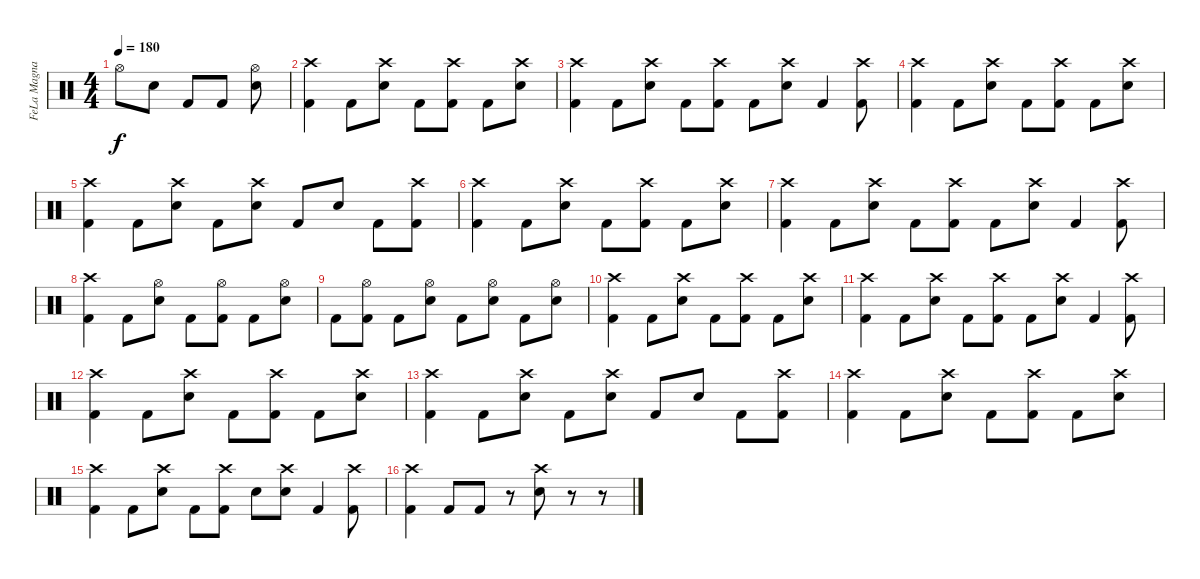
\track ("FeLa Magnani" "FeLa Magna") {instrument percussion}
\staff {score}
\articulation defaults
\ts (4 4)
\tempo 180
\clef neutral
\ks c "Hi-Hat (open)".8{dy f} "Electric Snare (hit)".8 "Kick (hit) 2".8 "Kick (hit) 2".8
("Hi-Hat (open)" "Electric Snare (hit)").8 |
("Crash high (hit)" "Kick (hit) 2").4 "Kick (hit) 2".8 ("Crash high (hit)" "Electric Snare (hit)").8 "Kick (hit) 2".8 ("Crash high (hit)" "Kick (hit) 2").8 "Kick (hit) 2".8 ("Crash high (hit)" "Electric Snare (hit)").8 |
("Crash high (hit)" "Kick (hit) 2").4 "Kick (hit) 2".8 ("Crash high (hit)" "Electric Snare (hit)").8 "Kick (hit) 2".8 ("Crash high (hit)" "Kick (hit) 2").8 "Kick (hit) 2".8 ("Crash high (hit)" "Electric Snare (hit)").8 "Kick (hit) 2".4 ("Crash high (hit)" "Kick (hit) 2").8 |
("Crash high (hit)" "Kick (hit) 2").4 "Kick (hit) 2".8 ("Crash high (hit)" "Electric Snare (hit)").8 "Kick (hit) 2".8 ("Crash high (hit)" "Kick (hit) 2").8 "Kick (hit) 2".8 ("Crash high (hit)" "Electric Snare (hit)").8 |
("Crash high (hit)" "Kick (hit) 2").4 "Kick (hit) 2".8 ("Crash high (hit)" "Electric Snare (hit)").8 "Kick (hit) 2".8 ("Crash high (hit)" "Electric Snare (hit)").8 "Kick (hit) 2".8 "Electric Snare (hit)".8 "Kick (hit) 2".8 ("Crash high (hit)" "Kick (hit) 2").8 |
("Crash high (hit)" "Kick (hit) 2").4 "Kick (hit) 2".8 ("Crash high (hit)" "Electric Snare (hit)").8 "Kick (hit) 2".8 ("Crash high (hit)" "Kick (hit) 2").8 "Kick (hit) 2".8 ("Crash high (hit)" "Electric Snare (hit)").8 |
("Crash high (hit)" "Kick (hit) 2").4 "Kick (hit) 2".8 ("Crash high (hit)" "Electric Snare (hit)").8 "Kick (hit) 2".8 ("Crash high (hit)" "Kick (hit) 2").8 "Kick (hit) 2".8 ("Crash high (hit)" "Electric Snare (hit)").8 "Kick (hit) 2".4 ("Crash high (hit)" "Kick (hit) 2").8 |
("Crash high (hit)" "Kick (hit) 2").4 "Kick (hit) 2".8 ("Hi-Hat (open)" "Electric Snare (hit)").8 "Kick (hit) 2".8 ("Hi-Hat (open)" "Kick (hit) 2").8 "Kick (hit) 2".8 ("Hi-Hat (open)" "Electric Snare (hit)").8 |
"Kick (hit) 2".8 ("Hi-Hat (open)" "Kick (hit) 2").8 "Kick (hit) 2".8 ("Hi-Hat (open)" "Electric Snare (hit)").8 "Kick (hit) 2".8 ("Hi-Hat (open)" "Electric Snare (hit)").8 "Kick (hit) 2".8 ("Hi-Hat (open)" "Electric Snare (hit)").8 |
("Crash high (hit)" "Kick (hit) 2").4 "Kick (hit) 2".8 ("Crash high (hit)" "Electric Snare (hit)").8 "Kick (hit) 2".8 ("Crash high (hit)" "Kick (hit) 2").8 "Kick (hit) 2".8 ("Crash high (hit)" "Electric Snare (hit)").8 |
("Crash high (hit)" "Kick (hit) 2").4 "Kick (hit) 2".8 ("Crash high (hit)" "Electric Snare (hit)").8 "Kick (hit) 2".8 ("Crash high (hit)" "Kick (hit) 2").8 "Kick (hit) 2".8 ("Crash high (hit)" "Electric Snare (hit)").8 "Kick (hit) 2".4 ("Crash high (hit)" "Kick (hit) 2").8 |
("Crash high (hit)" "Kick (hit) 2").4 "Kick (hit) 2".8 ("Crash high (hit)" "Electric Snare (hit)").8 "Kick (hit) 2".8 ("Crash high (hit)" "Kick (hit) 2").8 "Kick (hit) 2".8 ("Crash high (hit)" "Electric Snare (hit)").8 |
("Crash high (hit)" "Kick (hit) 2").4 "Kick (hit) 2".8 ("Crash high (hit)" "Electric Snare (hit)").8 "Kick (hit) 2".8 ("Crash high (hit)" "Electric Snare (hit)").8 "Kick (hit) 2".8 "Electric Snare (hit)".8 "Kick (hit) 2".8 ("Crash high (hit)" "Kick (hit) 2").8 |
("Crash high (hit)" "Kick (hit) 2").4 "Kick (hit) 2".8 ("Crash high (hit)" "Electric Snare (hit)").8 "Kick (hit) 2".8 ("Crash high (hit)" "Kick (hit) 2").8 "Kick (hit) 2".8 ("Crash high (hit)" "Electric Snare (hit)").8 |
("Crash high (hit)" "Kick (hit) 2").4 "Kick (hit) 2".8 ("Crash high (hit)" "Electric Snare (hit)").8 "Kick (hit) 2".8 ("Crash high (hit)" "Kick (hit) 2").8 "Electric Snare (hit)".8 ("Crash high (hit)" "Electric Snare (hit)").8 "Kick (hit) 2".4 ("Crash high (hit)" "Kick (hit) 2").8 |
("Crash high (hit)" "Kick (hit) 2").4 "Kick (hit) 2".8 "Kick (hit) 2".8 r.8 ("Crash high (hit)" "Electric Snare (hit)").8 r.8 r.8
